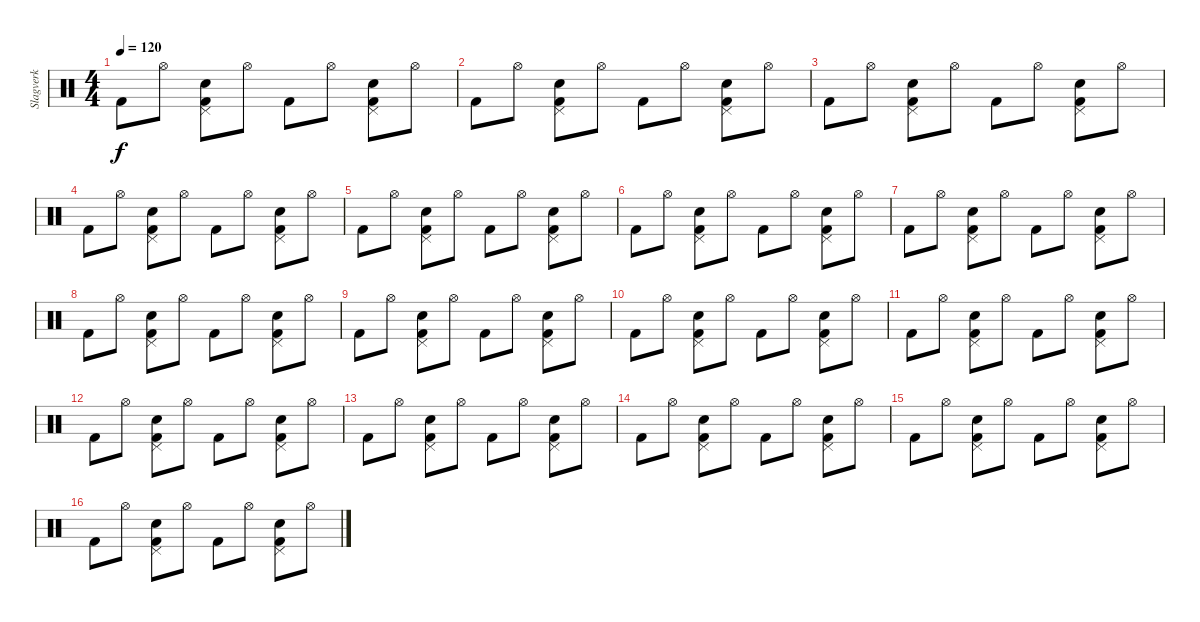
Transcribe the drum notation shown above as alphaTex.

\track ("Slagverk" "Slagverk") {instrument percussion}
\staff {score}
\articulation defaults
\ts (4 4)
\tempo 120
\clef neutral
\ks c "Kick (hit) 2".8{dy f} "Hi-Hat (open)".8
("Kick (hit) 2" "Pedal Hi-Hat (hit)" "Snare (hit) 2").8 "Hi-Hat (open)".8 "Kick (hit) 2".8 "Hi-Hat (open)".8 ("Kick (hit) 2" "Pedal Hi-Hat (hit)" "Snare (hit) 2").8 "Hi-Hat (open)".8 |
"Kick (hit) 2".8 "Hi-Hat (open)".8 ("Kick (hit) 2" "Pedal Hi-Hat (hit)" "Snare (hit) 2").8 "Hi-Hat (open)".8 "Kick (hit) 2".8 "Hi-Hat (open)".8 ("Kick (hit) 2" "Pedal Hi-Hat (hit)" "Snare (hit) 2").8 "Hi-Hat (open)".8 |
"Kick (hit) 2".8 "Hi-Hat (open)".8 ("Kick (hit) 2" "Pedal Hi-Hat (hit)" "Snare (hit) 2").8 "Hi-Hat (open)".8 "Kick (hit) 2".8 "Hi-Hat (open)".8 ("Kick (hit) 2" "Pedal Hi-Hat (hit)" "Snare (hit) 2").8 "Hi-Hat (open)".8 |
"Kick (hit) 2".8 "Hi-Hat (open)".8 ("Kick (hit) 2" "Pedal Hi-Hat (hit)" "Snare (hit) 2").8 "Hi-Hat (open)".8 "Kick (hit) 2".8 "Hi-Hat (open)".8 ("Kick (hit) 2" "Pedal Hi-Hat (hit)" "Snare (hit) 2").8 "Hi-Hat (open)".8 |
"Kick (hit) 2".8 "Hi-Hat (open)".8 ("Kick (hit) 2" "Pedal Hi-Hat (hit)" "Snare (hit) 2").8 "Hi-Hat (open)".8 "Kick (hit) 2".8 "Hi-Hat (open)".8 ("Kick (hit) 2" "Pedal Hi-Hat (hit)" "Snare (hit) 2").8 "Hi-Hat (open)".8 |
"Kick (hit) 2".8 "Hi-Hat (open)".8 ("Kick (hit) 2" "Pedal Hi-Hat (hit)" "Snare (hit) 2").8 "Hi-Hat (open)".8 "Kick (hit) 2".8 "Hi-Hat (open)".8 ("Kick (hit) 2" "Pedal Hi-Hat (hit)" "Snare (hit) 2").8 "Hi-Hat (open)".8 |
"Kick (hit) 2".8 "Hi-Hat (open)".8 ("Kick (hit) 2" "Pedal Hi-Hat (hit)" "Snare (hit) 2").8 "Hi-Hat (open)".8 "Kick (hit) 2".8 "Hi-Hat (open)".8 ("Kick (hit) 2" "Pedal Hi-Hat (hit)" "Snare (hit) 2").8 "Hi-Hat (open)".8 |
"Kick (hit) 2".8 "Hi-Hat (open)".8 ("Kick (hit) 2" "Pedal Hi-Hat (hit)" "Snare (hit) 2").8 "Hi-Hat (open)".8 "Kick (hit) 2".8 "Hi-Hat (open)".8 ("Kick (hit) 2" "Pedal Hi-Hat (hit)" "Snare (hit) 2").8 "Hi-Hat (open)".8 |
"Kick (hit) 2".8 "Hi-Hat (open)".8 ("Kick (hit) 2" "Pedal Hi-Hat (hit)" "Snare (hit) 2").8 "Hi-Hat (open)".8 "Kick (hit) 2".8 "Hi-Hat (open)".8 ("Kick (hit) 2" "Pedal Hi-Hat (hit)" "Snare (hit) 2").8 "Hi-Hat (open)".8 |
"Kick (hit) 2".8 "Hi-Hat (open)".8 ("Kick (hit) 2" "Pedal Hi-Hat (hit)" "Snare (hit) 2").8 "Hi-Hat (open)".8 "Kick (hit) 2".8 "Hi-Hat (open)".8 ("Kick (hit) 2" "Pedal Hi-Hat (hit)" "Snare (hit) 2").8 "Hi-Hat (open)".8 |
"Kick (hit) 2".8 "Hi-Hat (open)".8 ("Kick (hit) 2" "Pedal Hi-Hat (hit)" "Snare (hit) 2").8 "Hi-Hat (open)".8 "Kick (hit) 2".8 "Hi-Hat (open)".8 ("Kick (hit) 2" "Pedal Hi-Hat (hit)" "Snare (hit) 2").8 "Hi-Hat (open)".8 |
"Kick (hit) 2".8 "Hi-Hat (open)".8 ("Kick (hit) 2" "Pedal Hi-Hat (hit)" "Snare (hit) 2").8 "Hi-Hat (open)".8 "Kick (hit) 2".8 "Hi-Hat (open)".8 ("Kick (hit) 2" "Pedal Hi-Hat (hit)" "Snare (hit) 2").8 "Hi-Hat (open)".8 |
"Kick (hit) 2".8 "Hi-Hat (open)".8 ("Kick (hit) 2" "Pedal Hi-Hat (hit)" "Snare (hit) 2").8 "Hi-Hat (open)".8 "Kick (hit) 2".8 "Hi-Hat (open)".8 ("Kick (hit) 2" "Pedal Hi-Hat (hit)" "Snare (hit) 2").8 "Hi-Hat (open)".8 |
"Kick (hit) 2".8 "Hi-Hat (open)".8 ("Kick (hit) 2" "Pedal Hi-Hat (hit)" "Snare (hit) 2").8 "Hi-Hat (open)".8 "Kick (hit) 2".8 "Hi-Hat (open)".8 ("Kick (hit) 2" "Pedal Hi-Hat (hit)" "Snare (hit) 2").8 "Hi-Hat (open)".8 |
"Kick (hit) 2".8 "Hi-Hat (open)".8 ("Kick (hit) 2" "Pedal Hi-Hat (hit)" "Snare (hit) 2").8 "Hi-Hat (open)".8 "Kick (hit) 2".8 "Hi-Hat (open)".8 ("Kick (hit) 2" "Pedal Hi-Hat (hit)" "Snare (hit) 2").8 "Hi-Hat (open)".8 |
"Kick (hit) 2".8 "Hi-Hat (open)".8 ("Kick (hit) 2" "Pedal Hi-Hat (hit)" "Snare (hit) 2").8 "Hi-Hat (open)".8 "Kick (hit) 2".8 "Hi-Hat (open)".8 ("Kick (hit) 2" "Pedal Hi-Hat (hit)" "Snare (hit) 2").8 "Hi-Hat (open)".8
